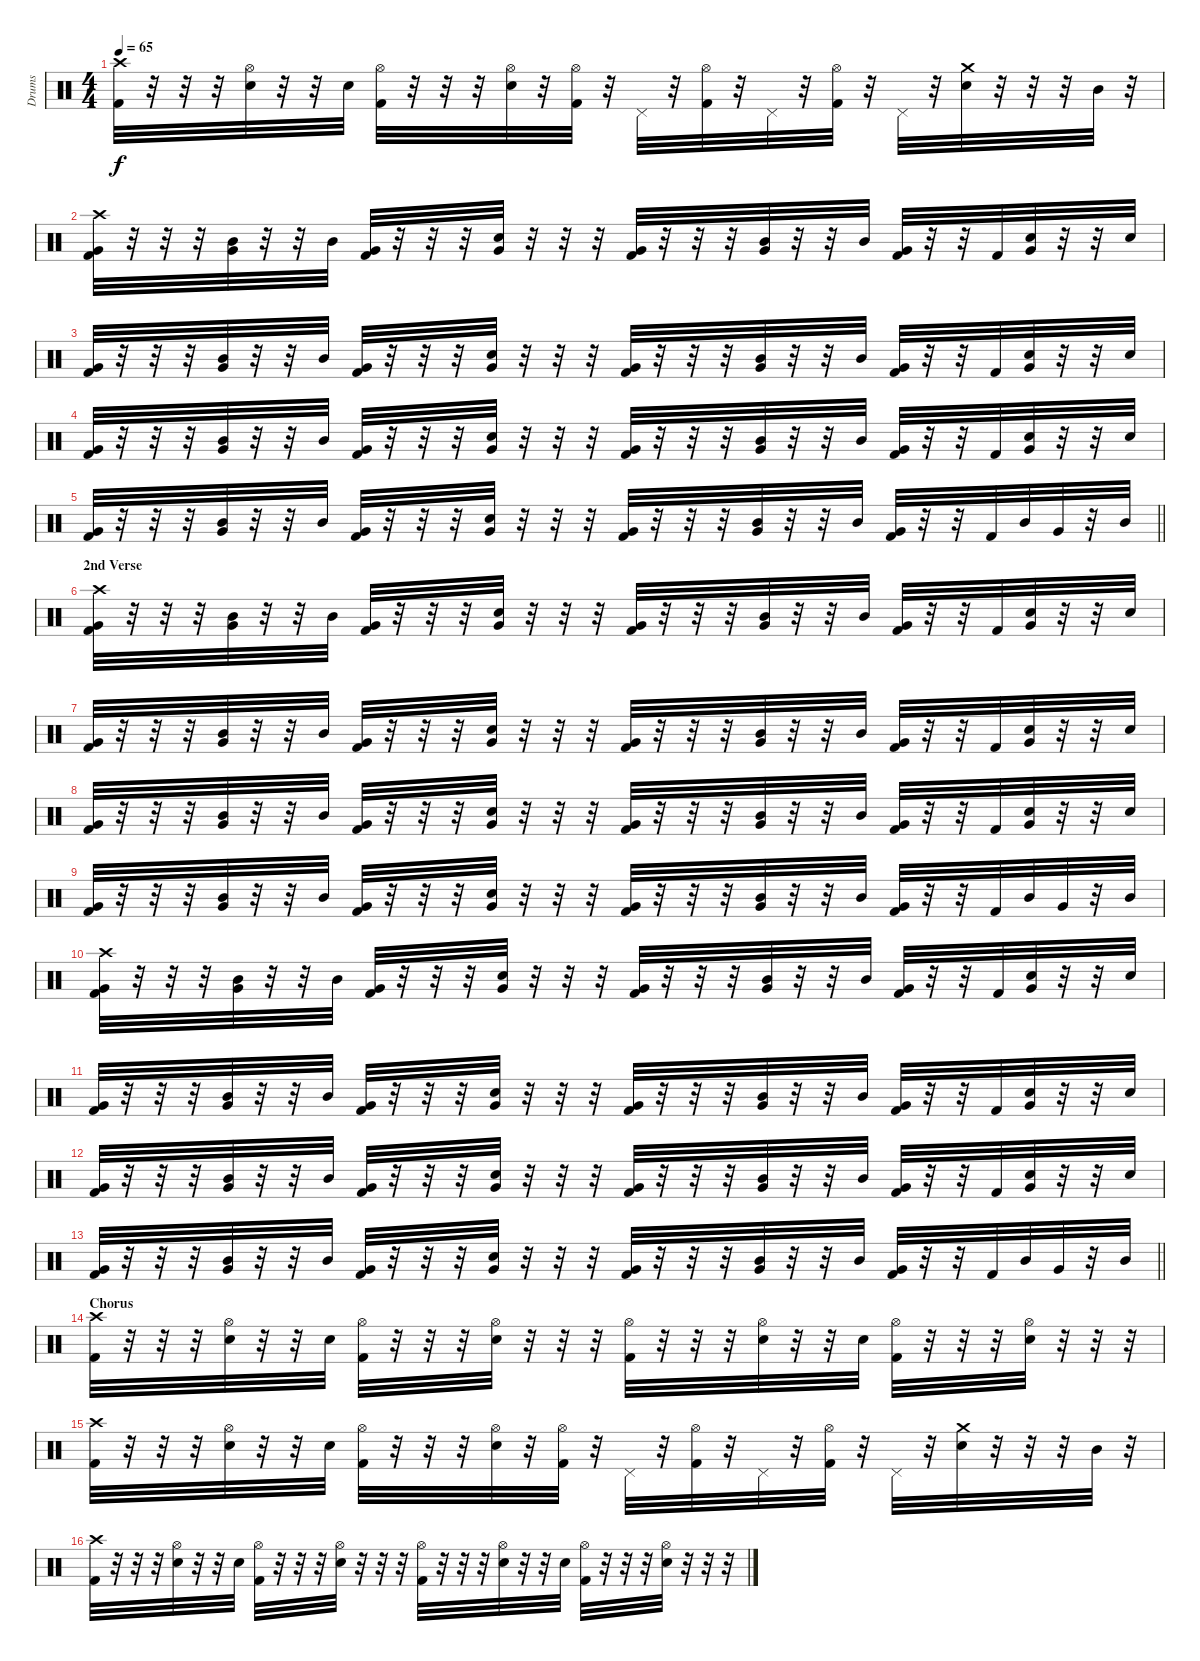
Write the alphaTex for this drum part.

\track ("Drums" "Drums") {instrument percussion}
\staff {score}
\articulation defaults
\ts (4 4)
\tempo 65
\clef neutral
\ks c
("Crash high (hit)" "Kick (hit) 2").32{dy f} r.32 r.32 r.32 ("Hi-Hat (open)" "Snare (hit) 2").32 r.32 r.32 "Snare (hit) 2".32 ("Hi-Hat (open)" "Kick (hit) 2").32 r.32 r.32 r.32 ("Hi-Hat (open)" "Snare (hit) 2").32 r.32 ("Hi-Hat (open)" "Kick (hit) 2").32 r.32 "Pedal Hi-Hat (hit)".32 r.32 ("Hi-Hat (open)" "Kick (hit) 2").32 r.32 "Pedal Hi-Hat (hit)".32 r.32 ("Hi-Hat (open)" "Kick (hit) 2").32 r.32 "Pedal Hi-Hat (hit)".32 r.32 ("Crash medium (hit)" "Snare (hit) 2").32 r.32 r.32 r.32 "Mid Tom (hit)".32 r.32 |
("Crash high (hit)" "Very Low Tom (hit)" "Kick (hit) 2").32 r.32 r.32 r.32 ("Mid Tom (hit)" "Very Low Tom (hit)").32 r.32 r.32 "Mid Tom (hit)".32 ("Very Low Tom (hit)" "Kick (hit) 2").32 r.32 r.32 r.32 ("Snare (hit) 2" "Very Low Tom (hit)").32 r.32 r.32 r.32 ("Very Low Tom (hit)" "Kick (hit) 2").32 r.32 r.32 r.32 ("Mid Tom (hit)" "Very Low Tom (hit)").32 r.32 r.32 "Mid Tom (hit)".32 ("Very Low Tom (hit)" "Kick (hit) 2").32 r.32 r.32 "Kick (hit) 2".32 ("Snare (hit) 2" "Very Low Tom (hit)").32 r.32 r.32 "Snare (hit) 2".32 |
("Very Low Tom (hit)" "Kick (hit) 2").32 r.32 r.32 r.32 ("Mid Tom (hit)" "Very Low Tom (hit)").32 r.32 r.32 "Mid Tom (hit)".32 ("Very Low Tom (hit)" "Kick (hit) 2").32 r.32 r.32 r.32 ("Snare (hit) 2" "Very Low Tom (hit)").32 r.32 r.32 r.32 ("Very Low Tom (hit)" "Kick (hit) 2").32 r.32 r.32 r.32 ("Mid Tom (hit)" "Very Low Tom (hit)").32 r.32 r.32 "Mid Tom (hit)".32 ("Very Low Tom (hit)" "Kick (hit) 2").32 r.32 r.32 "Kick (hit) 2".32 ("Snare (hit) 2" "Very Low Tom (hit)").32 r.32 r.32 "Snare (hit) 2".32 |
("Very Low Tom (hit)" "Kick (hit) 2").32 r.32 r.32 r.32 ("Mid Tom (hit)" "Very Low Tom (hit)").32 r.32 r.32 "Mid Tom (hit)".32 ("Very Low Tom (hit)" "Kick (hit) 2").32 r.32 r.32 r.32 ("Snare (hit) 2" "Very Low Tom (hit)").32 r.32 r.32 r.32 ("Very Low Tom (hit)" "Kick (hit) 2").32 r.32 r.32 r.32 ("Mid Tom (hit)" "Very Low Tom (hit)").32 r.32 r.32 "Mid Tom (hit)".32 ("Very Low Tom (hit)" "Kick (hit) 2").32 r.32 r.32 "Kick (hit) 2".32 ("Snare (hit) 2" "Very Low Tom (hit)").32 r.32 r.32 "Snare (hit) 2".32 |
\barLineRight lightlight
("Very Low Tom (hit)" "Kick (hit) 2").32 r.32 r.32 r.32 ("Mid Tom (hit)" "Very Low Tom (hit)").32 r.32 r.32 "Mid Tom (hit)".32 ("Very Low Tom (hit)" "Kick (hit) 2").32 r.32 r.32 r.32 ("Snare (hit) 2" "Very Low Tom (hit)").32 r.32 r.32 r.32 ("Very Low Tom (hit)" "Kick (hit) 2").32 r.32 r.32 r.32 ("Mid Tom (hit)" "Very Low Tom (hit)").32 r.32 r.32 "Mid Tom (hit)".32 ("Very Low Tom (hit)" "Kick (hit) 2").32 r.32 r.32 "Kick (hit) 2".32 "Mid Tom (hit)".32 "Very Low Tom (hit)".32 r.32 "Mid Tom (hit)".32 |
\section ("" "2nd Verse")
("Crash high (hit)" "Very Low Tom (hit)" "Kick (hit) 2").32 r.32 r.32 r.32 ("Mid Tom (hit)" "Very Low Tom (hit)").32 r.32 r.32 "Mid Tom (hit)".32 ("Very Low Tom (hit)" "Kick (hit) 2").32 r.32 r.32 r.32 ("Snare (hit) 2" "Very Low Tom (hit)").32 r.32 r.32 r.32 ("Very Low Tom (hit)" "Kick (hit) 2").32 r.32 r.32 r.32 ("Mid Tom (hit)" "Very Low Tom (hit)").32 r.32 r.32 "Mid Tom (hit)".32 ("Very Low Tom (hit)" "Kick (hit) 2").32 r.32 r.32 "Kick (hit) 2".32 ("Snare (hit) 2" "Very Low Tom (hit)").32 r.32 r.32 "Snare (hit) 2".32 |
("Very Low Tom (hit)" "Kick (hit) 2").32 r.32 r.32 r.32 ("Mid Tom (hit)" "Very Low Tom (hit)").32 r.32 r.32 "Mid Tom (hit)".32 ("Very Low Tom (hit)" "Kick (hit) 2").32 r.32 r.32 r.32 ("Snare (hit) 2" "Very Low Tom (hit)").32 r.32 r.32 r.32 ("Very Low Tom (hit)" "Kick (hit) 2").32 r.32 r.32 r.32 ("Mid Tom (hit)" "Very Low Tom (hit)").32 r.32 r.32 "Mid Tom (hit)".32 ("Very Low Tom (hit)" "Kick (hit) 2").32 r.32 r.32 "Kick (hit) 2".32 ("Snare (hit) 2" "Very Low Tom (hit)").32 r.32 r.32 "Snare (hit) 2".32 |
("Very Low Tom (hit)" "Kick (hit) 2").32 r.32 r.32 r.32 ("Mid Tom (hit)" "Very Low Tom (hit)").32 r.32 r.32 "Mid Tom (hit)".32 ("Very Low Tom (hit)" "Kick (hit) 2").32 r.32 r.32 r.32 ("Snare (hit) 2" "Very Low Tom (hit)").32 r.32 r.32 r.32 ("Very Low Tom (hit)" "Kick (hit) 2").32 r.32 r.32 r.32 ("Mid Tom (hit)" "Very Low Tom (hit)").32 r.32 r.32 "Mid Tom (hit)".32 ("Very Low Tom (hit)" "Kick (hit) 2").32 r.32 r.32 "Kick (hit) 2".32 ("Snare (hit) 2" "Very Low Tom (hit)").32 r.32 r.32 "Snare (hit) 2".32 |
("Very Low Tom (hit)" "Kick (hit) 2").32 r.32 r.32 r.32 ("Mid Tom (hit)" "Very Low Tom (hit)").32 r.32 r.32 "Mid Tom (hit)".32 ("Very Low Tom (hit)" "Kick (hit) 2").32 r.32 r.32 r.32 ("Snare (hit) 2" "Very Low Tom (hit)").32 r.32 r.32 r.32 ("Very Low Tom (hit)" "Kick (hit) 2").32 r.32 r.32 r.32 ("Mid Tom (hit)" "Very Low Tom (hit)").32 r.32 r.32 "Mid Tom (hit)".32 ("Very Low Tom (hit)" "Kick (hit) 2").32 r.32 r.32 "Kick (hit) 2".32 "Mid Tom (hit)".32 "Very Low Tom (hit)".32 r.32 "Mid Tom (hit)".32 |
("Crash high (hit)" "Very Low Tom (hit)" "Kick (hit) 2").32 r.32 r.32 r.32 ("Mid Tom (hit)" "Very Low Tom (hit)").32 r.32 r.32 "Mid Tom (hit)".32 ("Very Low Tom (hit)" "Kick (hit) 2").32 r.32 r.32 r.32 ("Snare (hit) 2" "Very Low Tom (hit)").32 r.32 r.32 r.32 ("Very Low Tom (hit)" "Kick (hit) 2").32 r.32 r.32 r.32 ("Mid Tom (hit)" "Very Low Tom (hit)").32 r.32 r.32 "Mid Tom (hit)".32 ("Very Low Tom (hit)" "Kick (hit) 2").32 r.32 r.32 "Kick (hit) 2".32 ("Snare (hit) 2" "Very Low Tom (hit)").32 r.32 r.32 "Snare (hit) 2".32 |
("Very Low Tom (hit)" "Kick (hit) 2").32 r.32 r.32 r.32 ("Mid Tom (hit)" "Very Low Tom (hit)").32 r.32 r.32 "Mid Tom (hit)".32 ("Very Low Tom (hit)" "Kick (hit) 2").32 r.32 r.32 r.32 ("Snare (hit) 2" "Very Low Tom (hit)").32 r.32 r.32 r.32 ("Very Low Tom (hit)" "Kick (hit) 2").32 r.32 r.32 r.32 ("Mid Tom (hit)" "Very Low Tom (hit)").32 r.32 r.32 "Mid Tom (hit)".32 ("Very Low Tom (hit)" "Kick (hit) 2").32 r.32 r.32 "Kick (hit) 2".32 ("Snare (hit) 2" "Very Low Tom (hit)").32 r.32 r.32 "Snare (hit) 2".32 |
("Very Low Tom (hit)" "Kick (hit) 2").32 r.32 r.32 r.32 ("Mid Tom (hit)" "Very Low Tom (hit)").32 r.32 r.32 "Mid Tom (hit)".32 ("Very Low Tom (hit)" "Kick (hit) 2").32 r.32 r.32 r.32 ("Snare (hit) 2" "Very Low Tom (hit)").32 r.32 r.32 r.32 ("Very Low Tom (hit)" "Kick (hit) 2").32 r.32 r.32 r.32 ("Mid Tom (hit)" "Very Low Tom (hit)").32 r.32 r.32 "Mid Tom (hit)".32 ("Very Low Tom (hit)" "Kick (hit) 2").32 r.32 r.32 "Kick (hit) 2".32 ("Snare (hit) 2" "Very Low Tom (hit)").32 r.32 r.32 "Snare (hit) 2".32 |
\barLineRight lightlight
("Very Low Tom (hit)" "Kick (hit) 2").32 r.32 r.32 r.32 ("Mid Tom (hit)" "Very Low Tom (hit)").32 r.32 r.32 "Mid Tom (hit)".32 ("Very Low Tom (hit)" "Kick (hit) 2").32 r.32 r.32 r.32 ("Snare (hit) 2" "Very Low Tom (hit)").32 r.32 r.32 r.32 ("Very Low Tom (hit)" "Kick (hit) 2").32 r.32 r.32 r.32 ("Mid Tom (hit)" "Very Low Tom (hit)").32 r.32 r.32 "Mid Tom (hit)".32 ("Very Low Tom (hit)" "Kick (hit) 2").32 r.32 r.32 "Kick (hit) 2".32 "Mid Tom (hit)".32 "Very Low Tom (hit)".32 r.32 "Mid Tom (hit)".32 |
\section ("" "Chorus")
("Crash high (hit)" "Kick (hit) 2").32 r.32 r.32 r.32 ("Hi-Hat (open)" "Snare (hit) 2").32 r.32 r.32 "Snare (hit) 2".32 ("Hi-Hat (open)" "Kick (hit) 2").32 r.32 r.32 r.32 ("Hi-Hat (open)" "Snare (hit) 2").32 r.32 r.32 r.32 ("Hi-Hat (open)" "Kick (hit) 2").32 r.32 r.32 r.32 ("Hi-Hat (open)" "Snare (hit) 2").32 r.32 r.32 "Snare (hit) 2".32 ("Hi-Hat (open)" "Kick (hit) 2").32 r.32 r.32 r.32 ("Hi-Hat (open)" "Snare (hit) 2").32 r.32 r.32 r.32 |
("Crash high (hit)" "Kick (hit) 2").32 r.32 r.32 r.32 ("Hi-Hat (open)" "Snare (hit) 2").32 r.32 r.32 "Snare (hit) 2".32 ("Hi-Hat (open)" "Kick (hit) 2").32 r.32 r.32 r.32 ("Hi-Hat (open)" "Snare (hit) 2").32 r.32 ("Hi-Hat (open)" "Kick (hit) 2").32 r.32 "Pedal Hi-Hat (hit)".32 r.32 ("Hi-Hat (open)" "Kick (hit) 2").32 r.32 "Pedal Hi-Hat (hit)".32 r.32 ("Hi-Hat (open)" "Kick (hit) 2").32 r.32 "Pedal Hi-Hat (hit)".32 r.32 ("Crash medium (hit)" "Snare (hit) 2").32 r.32 r.32 r.32 "Mid Tom (hit)".32 r.32 |
("Crash high (hit)" "Kick (hit) 2").32 r.32 r.32 r.32 ("Hi-Hat (open)" "Snare (hit) 2").32 r.32 r.32 "Snare (hit) 2".32 ("Hi-Hat (open)" "Kick (hit) 2").32 r.32 r.32 r.32 ("Hi-Hat (open)" "Snare (hit) 2").32 r.32 r.32 r.32 ("Hi-Hat (open)" "Kick (hit) 2").32 r.32 r.32 r.32 ("Hi-Hat (open)" "Snare (hit) 2").32 r.32 r.32 "Snare (hit) 2".32 ("Hi-Hat (open)" "Kick (hit) 2").32 r.32 r.32 r.32 ("Hi-Hat (open)" "Snare (hit) 2").32 r.32 r.32 r.32
